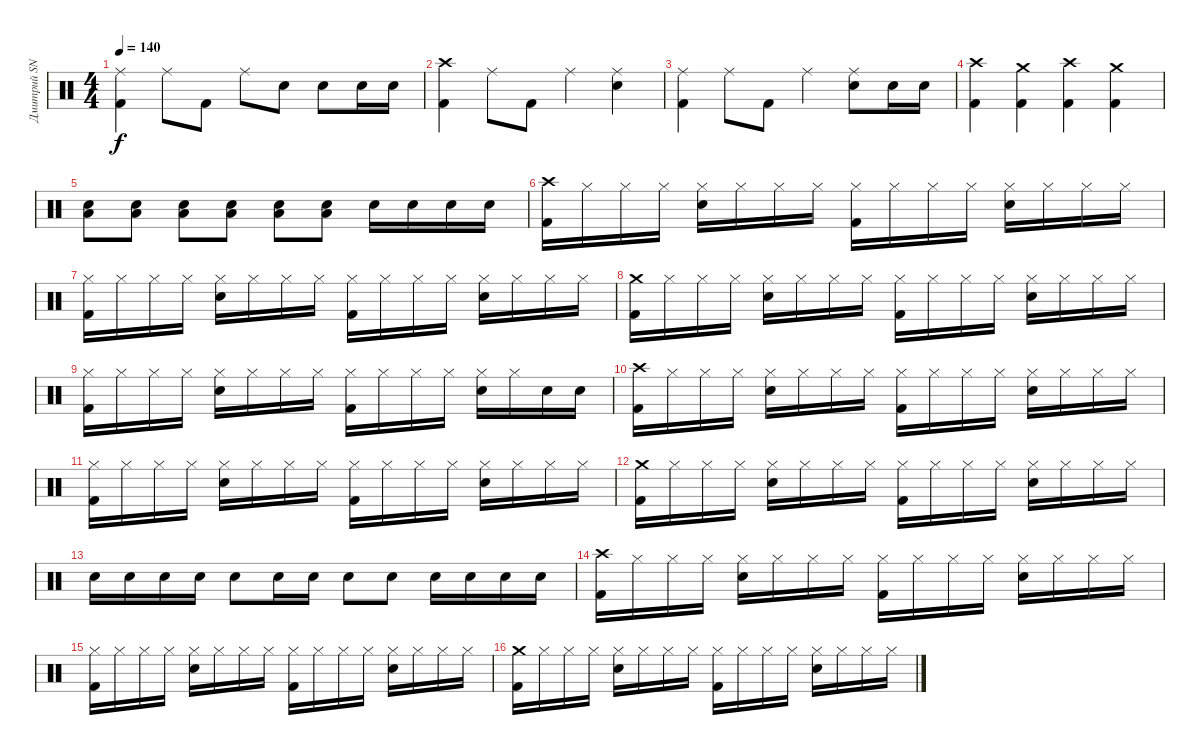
\track ("Дмитрий SNAKE Хакимов" "Дмитрий SN") {instrument percussion}
\staff {score}
\articulation defaults
\ts (4 4)
\tempo 140
\clef neutral
\ks c
("Ride (middle)" "Kick (hit) 2").4{dy f} "Ride (middle)".8 "Kick (hit) 2".8 "Ride (middle)".8 "Snare (hit) 2".8 "Snare (hit) 2".8 "Snare (hit) 2".16 "Snare (hit) 2".16 |
("Crash high (hit)" "Kick (hit) 2").4 "Ride (middle)".8 "Kick (hit) 2".8 "Ride (middle)".4 ("Ride (middle)" "Snare (hit) 2").4 |
("Ride (middle)" "Kick (hit) 2").4 "Ride (middle)".8 "Kick (hit) 2".8 "Ride (middle)".4 ("Ride (middle)" "Snare (hit) 2").8 "Snare (hit) 2".16 "Snare (hit) 2".16 |
("Crash high (hit)" "Kick (hit) 2").4 ("Crash medium (hit)" "Kick (hit) 2").4 ("Crash high (hit)" "Kick (hit) 2").4 ("Crash medium (hit)" "Kick (hit) 2").4 |
("Snare (hit) 2" "Low Tom (hit)").8 ("Snare (hit) 2" "Low Tom (hit)").8 ("Snare (hit) 2" "Low Tom (hit)").8 ("Snare (hit) 2" "Low Tom (hit)").8 ("Snare (hit) 2" "Low Tom (hit)").8 ("Snare (hit) 2" "Low Tom (hit)").8 "Snare (hit) 2".16 "Snare (hit) 2".16 "Snare (hit) 2".16 "Snare (hit) 2".16 |
("Crash high (hit)" "Kick (hit) 2").16 "Hi-Hat (closed)".16 "Hi-Hat (closed)".16 "Hi-Hat (closed)".16 ("Hi-Hat (closed)" "Snare (hit) 2").16 "Hi-Hat (closed)".16 "Hi-Hat (closed)".16 "Hi-Hat (closed)".16 ("Hi-Hat (closed)" "Kick (hit) 2").16 "Hi-Hat (closed)".16 "Hi-Hat (closed)".16 "Hi-Hat (closed)".16 ("Hi-Hat (closed)" "Snare (hit) 2").16 "Hi-Hat (closed)".16 "Hi-Hat (closed)".16 "Hi-Hat (closed)".16 |
("Hi-Hat (closed)" "Kick (hit) 2").16 "Hi-Hat (closed)".16 "Hi-Hat (closed)".16 "Hi-Hat (closed)".16 ("Hi-Hat (closed)" "Snare (hit) 2").16 "Hi-Hat (closed)".16 "Hi-Hat (closed)".16 "Hi-Hat (closed)".16 ("Hi-Hat (closed)" "Kick (hit) 2").16 "Hi-Hat (closed)".16 "Hi-Hat (closed)".16 "Hi-Hat (closed)".16 ("Hi-Hat (closed)" "Snare (hit) 2").16 "Hi-Hat (closed)".16 "Hi-Hat (closed)".16 "Hi-Hat (closed)".16 |
("Crash medium (hit)" "Kick (hit) 2").16 "Hi-Hat (closed)".16 "Hi-Hat (closed)".16 "Hi-Hat (closed)".16 ("Hi-Hat (closed)" "Snare (hit) 2").16 "Hi-Hat (closed)".16 "Hi-Hat (closed)".16 "Hi-Hat (closed)".16 ("Hi-Hat (closed)" "Kick (hit) 2").16 "Hi-Hat (closed)".16 "Hi-Hat (closed)".16 "Hi-Hat (closed)".16 ("Hi-Hat (closed)" "Snare (hit) 2").16 "Hi-Hat (closed)".16 "Hi-Hat (closed)".16 "Hi-Hat (closed)".16 |
("Hi-Hat (closed)" "Kick (hit) 2").16 "Hi-Hat (closed)".16 "Hi-Hat (closed)".16 "Hi-Hat (closed)".16 ("Hi-Hat (closed)" "Snare (hit) 2").16 "Hi-Hat (closed)".16 "Hi-Hat (closed)".16 "Hi-Hat (closed)".16 ("Hi-Hat (closed)" "Kick (hit) 2").16 "Hi-Hat (closed)".16 "Hi-Hat (closed)".16 "Hi-Hat (closed)".16 ("Hi-Hat (closed)" "Snare (hit) 2").16 "Hi-Hat (closed)".16 "Snare (hit) 2".16 "Snare (hit) 2".16 |
("Crash high (hit)" "Kick (hit) 2").16 "Hi-Hat (closed)".16 "Hi-Hat (closed)".16 "Hi-Hat (closed)".16 ("Hi-Hat (closed)" "Snare (hit) 2").16 "Hi-Hat (closed)".16 "Hi-Hat (closed)".16 "Hi-Hat (closed)".16 ("Hi-Hat (closed)" "Kick (hit) 2").16 "Hi-Hat (closed)".16 "Hi-Hat (closed)".16 "Hi-Hat (closed)".16 ("Hi-Hat (closed)" "Snare (hit) 2").16 "Hi-Hat (closed)".16 "Hi-Hat (closed)".16 "Hi-Hat (closed)".16 |
("Hi-Hat (closed)" "Kick (hit) 2").16 "Hi-Hat (closed)".16 "Hi-Hat (closed)".16 "Hi-Hat (closed)".16 ("Hi-Hat (closed)" "Snare (hit) 2").16 "Hi-Hat (closed)".16 "Hi-Hat (closed)".16 "Hi-Hat (closed)".16 ("Hi-Hat (closed)" "Kick (hit) 2").16 "Hi-Hat (closed)".16 "Hi-Hat (closed)".16 "Hi-Hat (closed)".16 ("Hi-Hat (closed)" "Snare (hit) 2").16 "Hi-Hat (closed)".16 "Hi-Hat (closed)".16 "Hi-Hat (closed)".16 |
("Crash medium (hit)" "Kick (hit) 2").16 "Hi-Hat (closed)".16 "Hi-Hat (closed)".16 "Hi-Hat (closed)".16 ("Hi-Hat (closed)" "Snare (hit) 2").16 "Hi-Hat (closed)".16 "Hi-Hat (closed)".16 "Hi-Hat (closed)".16 ("Hi-Hat (closed)" "Kick (hit) 2").16 "Hi-Hat (closed)".16 "Hi-Hat (closed)".16 "Hi-Hat (closed)".16 ("Hi-Hat (closed)" "Snare (hit) 2").16 "Hi-Hat (closed)".16 "Hi-Hat (closed)".16 "Hi-Hat (closed)".16 |
"Snare (hit) 2".16 "Snare (hit) 2".16 "Snare (hit) 2".16 "Snare (hit) 2".16 "Snare (hit) 2".8 "Snare (hit) 2".16 "Snare (hit) 2".16 "Snare (hit) 2".8 "Snare (hit) 2".8 "Snare (hit) 2".16 "Snare (hit) 2".16 "Snare (hit) 2".16 "Snare (hit) 2".16 |
("Crash high (hit)" "Kick (hit) 2").16 "Hi-Hat (closed)".16 "Hi-Hat (closed)".16 "Hi-Hat (closed)".16 ("Hi-Hat (closed)" "Snare (hit) 2").16 "Hi-Hat (closed)".16 "Hi-Hat (closed)".16 "Hi-Hat (closed)".16 ("Hi-Hat (closed)" "Kick (hit) 2").16 "Hi-Hat (closed)".16 "Hi-Hat (closed)".16 "Hi-Hat (closed)".16 ("Hi-Hat (closed)" "Snare (hit) 2").16 "Hi-Hat (closed)".16 "Hi-Hat (closed)".16 "Hi-Hat (closed)".16 |
("Hi-Hat (closed)" "Kick (hit) 2").16 "Hi-Hat (closed)".16 "Hi-Hat (closed)".16 "Hi-Hat (closed)".16 ("Hi-Hat (closed)" "Snare (hit) 2").16 "Hi-Hat (closed)".16 "Hi-Hat (closed)".16 "Hi-Hat (closed)".16 ("Hi-Hat (closed)" "Kick (hit) 2").16 "Hi-Hat (closed)".16 "Hi-Hat (closed)".16 "Hi-Hat (closed)".16 ("Hi-Hat (closed)" "Snare (hit) 2").16 "Hi-Hat (closed)".16 "Hi-Hat (closed)".16 "Hi-Hat (closed)".16 |
("Crash medium (hit)" "Kick (hit) 2").16 "Hi-Hat (closed)".16 "Hi-Hat (closed)".16 "Hi-Hat (closed)".16 ("Hi-Hat (closed)" "Snare (hit) 2").16 "Hi-Hat (closed)".16 "Hi-Hat (closed)".16 "Hi-Hat (closed)".16 ("Hi-Hat (closed)" "Kick (hit) 2").16 "Hi-Hat (closed)".16 "Hi-Hat (closed)".16 "Hi-Hat (closed)".16 ("Hi-Hat (closed)" "Snare (hit) 2").16 "Hi-Hat (closed)".16 "Hi-Hat (closed)".16 "Hi-Hat (closed)".16
